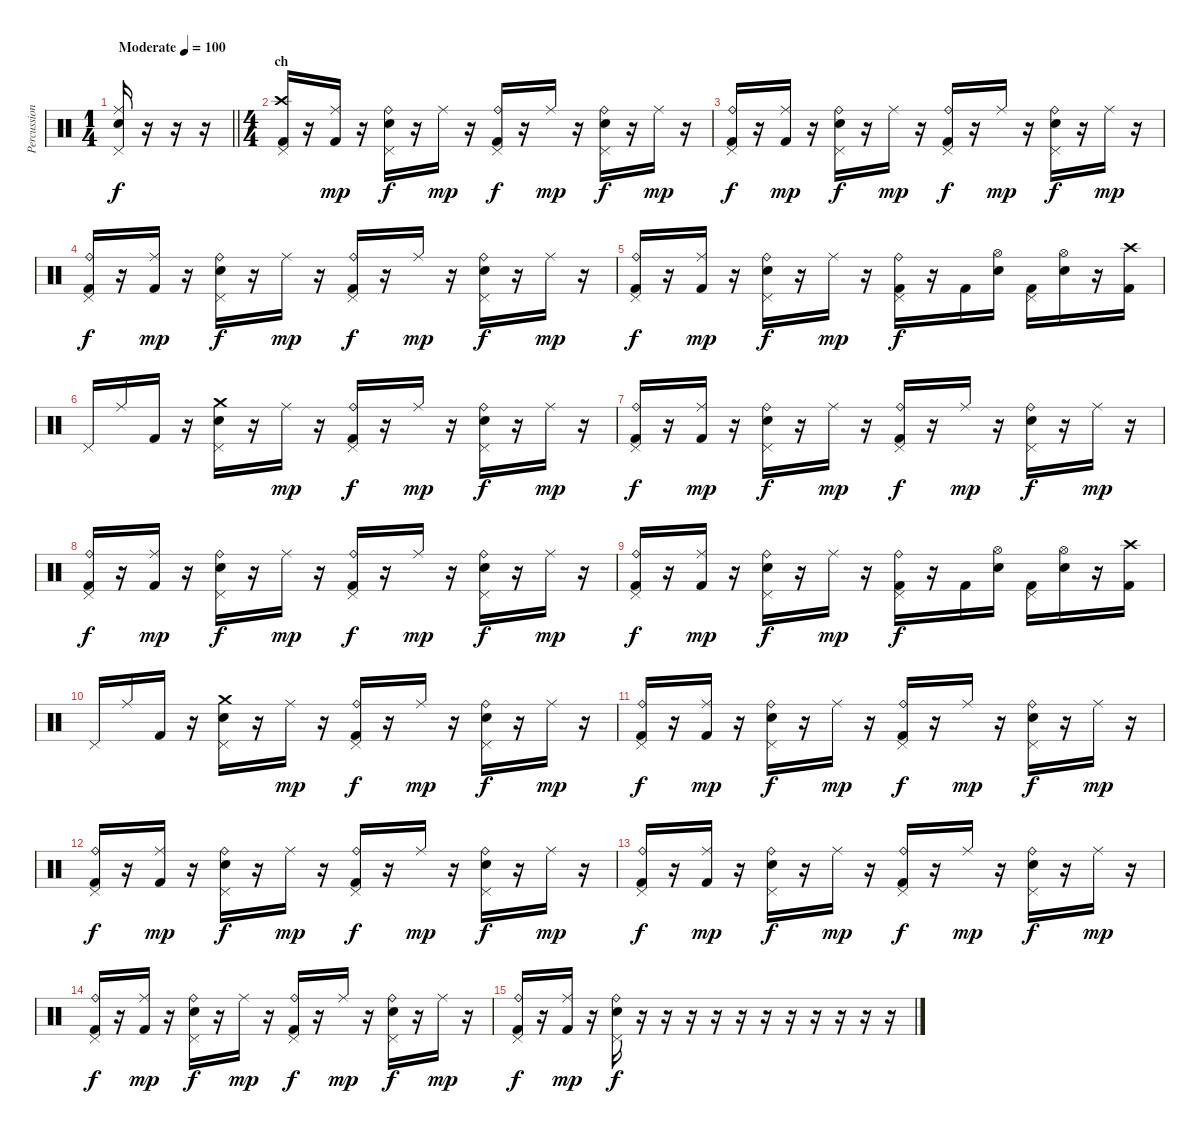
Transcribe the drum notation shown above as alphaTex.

\track ("Percussion" "Percussion") {instrument percussion}
\staff {score}
\articulation defaults
\ts (1 4)
\tempo (100 "Moderate")
\clef neutral
\barLineRight lightlight
\ks c
("Ride (middle)" "Electric Snare (hit)" "Pedal Hi-Hat (hit)").16{dy f} r.16 r.16 r.16 |
\ts (4 4)
\section ("" "ch")
("Crash high (hit)" "Pedal Hi-Hat (hit)" "Kick (hit) 2").16 r.16 ("Ride (middle)" "Kick (hit) 2").16{dy mp} r.16 ("Ride (bell)" "Electric Snare (hit)" "Pedal Hi-Hat (hit)").16{dy f} r.16 "Ride (middle)".16{dy mp} r.16 ("Ride (bell)" "Pedal Hi-Hat (hit)" "Kick (hit) 2").16{dy f} r.16 "Ride (middle)".16{dy mp} r.16 ("Ride (bell)" "Electric Snare (hit)" "Pedal Hi-Hat (hit)").16{dy f} r.16 "Ride (middle)".16{dy mp} r.16 |
("Ride (bell)" "Pedal Hi-Hat (hit)" "Kick (hit) 2").16{dy f} r.16 ("Ride (middle)" "Kick (hit) 2").16{dy mp} r.16 ("Ride (bell)" "Electric Snare (hit)" "Pedal Hi-Hat (hit)").16{dy f} r.16 "Ride (middle)".16{dy mp} r.16 ("Ride (bell)" "Pedal Hi-Hat (hit)" "Kick (hit) 2").16{dy f} r.16 "Ride (middle)".16{dy mp} r.16 ("Ride (bell)" "Electric Snare (hit)" "Pedal Hi-Hat (hit)").16{dy f} r.16 "Ride (middle)".16{dy mp} r.16 |
("Ride (bell)" "Pedal Hi-Hat (hit)" "Kick (hit) 2").16{dy f} r.16 ("Ride (middle)" "Kick (hit) 2").16{dy mp} r.16 ("Ride (bell)" "Electric Snare (hit)" "Pedal Hi-Hat (hit)").16{dy f} r.16 "Ride (middle)".16{dy mp} r.16 ("Ride (bell)" "Pedal Hi-Hat (hit)" "Kick (hit) 2").16{dy f} r.16 "Ride (middle)".16{dy mp} r.16 ("Ride (bell)" "Electric Snare (hit)" "Pedal Hi-Hat (hit)").16{dy f} r.16 "Ride (middle)".16{dy mp} r.16 |
("Ride (bell)" "Pedal Hi-Hat (hit)" "Kick (hit) 2").16{dy f} r.16 ("Ride (middle)" "Kick (hit) 2").16{dy mp} r.16 ("Ride (bell)" "Electric Snare (hit)" "Pedal Hi-Hat (hit)").16{dy f} r.16 "Ride (middle)".16{dy mp} r.16 ("Ride (bell)" "Pedal Hi-Hat (hit)" "Kick (hit) 2").16{dy f} r.16 "Kick (hit) 2".16 ("Hi-Hat (open)" "Electric Snare (hit)").16 ("Pedal Hi-Hat (hit)" "Kick (hit) 2").16 ("Hi-Hat (open)" "Electric Snare (hit)").16 r.16 ("Crash high (hit)" "Kick (hit) 2").16 |
"Pedal Hi-Hat (hit)".16 "Ride (middle)".16 "Kick (hit) 2".16 r.16 ("Crash medium (hit)" "Electric Snare (hit)" "Pedal Hi-Hat (hit)").16 r.16 "Ride (middle)".16{dy mp} r.16 ("Ride (bell)" "Pedal Hi-Hat (hit)" "Kick (hit) 2").16{dy f} r.16 "Ride (middle)".16{dy mp} r.16 ("Ride (bell)" "Electric Snare (hit)" "Pedal Hi-Hat (hit)").16{dy f} r.16 "Ride (middle)".16{dy mp} r.16 |
("Ride (bell)" "Pedal Hi-Hat (hit)" "Kick (hit) 2").16{dy f} r.16 ("Ride (middle)" "Kick (hit) 2").16{dy mp} r.16 ("Ride (bell)" "Electric Snare (hit)" "Pedal Hi-Hat (hit)").16{dy f} r.16 "Ride (middle)".16{dy mp} r.16 ("Ride (bell)" "Pedal Hi-Hat (hit)" "Kick (hit) 2").16{dy f} r.16 "Ride (middle)".16{dy mp} r.16 ("Ride (bell)" "Electric Snare (hit)" "Pedal Hi-Hat (hit)").16{dy f} r.16 "Ride (middle)".16{dy mp} r.16 |
("Ride (bell)" "Pedal Hi-Hat (hit)" "Kick (hit) 2").16{dy f} r.16 ("Ride (middle)" "Kick (hit) 2").16{dy mp} r.16 ("Ride (bell)" "Electric Snare (hit)" "Pedal Hi-Hat (hit)").16{dy f} r.16 "Ride (middle)".16{dy mp} r.16 ("Ride (bell)" "Pedal Hi-Hat (hit)" "Kick (hit) 2").16{dy f} r.16 "Ride (middle)".16{dy mp} r.16 ("Ride (bell)" "Electric Snare (hit)" "Pedal Hi-Hat (hit)").16{dy f} r.16 "Ride (middle)".16{dy mp} r.16 |
("Ride (bell)" "Pedal Hi-Hat (hit)" "Kick (hit) 2").16{dy f} r.16 ("Ride (middle)" "Kick (hit) 2").16{dy mp} r.16 ("Ride (bell)" "Electric Snare (hit)" "Pedal Hi-Hat (hit)").16{dy f} r.16 "Ride (middle)".16{dy mp} r.16 ("Ride (bell)" "Pedal Hi-Hat (hit)" "Kick (hit) 2").16{dy f} r.16 "Kick (hit) 2".16 ("Hi-Hat (open)" "Electric Snare (hit)").16 ("Pedal Hi-Hat (hit)" "Kick (hit) 2").16 ("Hi-Hat (open)" "Electric Snare (hit)").16 r.16 ("Crash high (hit)" "Kick (hit) 2").16 |
"Pedal Hi-Hat (hit)".16 "Ride (middle)".16 "Kick (hit) 2".16 r.16 ("Crash medium (hit)" "Electric Snare (hit)" "Pedal Hi-Hat (hit)").16 r.16 "Ride (middle)".16{dy mp} r.16 ("Ride (bell)" "Pedal Hi-Hat (hit)" "Kick (hit) 2").16{dy f} r.16 "Ride (middle)".16{dy mp} r.16 ("Ride (bell)" "Electric Snare (hit)" "Pedal Hi-Hat (hit)").16{dy f} r.16 "Ride (middle)".16{dy mp} r.16 |
("Ride (bell)" "Pedal Hi-Hat (hit)" "Kick (hit) 2").16{dy f} r.16 ("Ride (middle)" "Kick (hit) 2").16{dy mp} r.16 ("Ride (bell)" "Electric Snare (hit)" "Pedal Hi-Hat (hit)").16{dy f} r.16 "Ride (middle)".16{dy mp} r.16 ("Ride (bell)" "Pedal Hi-Hat (hit)" "Kick (hit) 2").16{dy f} r.16 "Ride (middle)".16{dy mp} r.16 ("Ride (bell)" "Electric Snare (hit)" "Pedal Hi-Hat (hit)").16{dy f} r.16 "Ride (middle)".16{dy mp} r.16 |
("Ride (bell)" "Pedal Hi-Hat (hit)" "Kick (hit) 2").16{dy f} r.16 ("Ride (middle)" "Kick (hit) 2").16{dy mp} r.16 ("Ride (bell)" "Electric Snare (hit)" "Pedal Hi-Hat (hit)").16{dy f} r.16 "Ride (middle)".16{dy mp} r.16 ("Ride (bell)" "Pedal Hi-Hat (hit)" "Kick (hit) 2").16{dy f} r.16 "Ride (middle)".16{dy mp} r.16 ("Ride (bell)" "Electric Snare (hit)" "Pedal Hi-Hat (hit)").16{dy f} r.16 "Ride (middle)".16{dy mp} r.16 |
("Ride (bell)" "Pedal Hi-Hat (hit)" "Kick (hit) 2").16{dy f} r.16 ("Ride (middle)" "Kick (hit) 2").16{dy mp} r.16 ("Ride (bell)" "Electric Snare (hit)" "Pedal Hi-Hat (hit)").16{dy f} r.16 "Ride (middle)".16{dy mp} r.16 ("Ride (bell)" "Pedal Hi-Hat (hit)" "Kick (hit) 2").16{dy f} r.16 "Ride (middle)".16{dy mp} r.16 ("Ride (bell)" "Electric Snare (hit)" "Pedal Hi-Hat (hit)").16{dy f} r.16 "Ride (middle)".16{dy mp} r.16 |
("Ride (bell)" "Pedal Hi-Hat (hit)" "Kick (hit) 2").16{dy f} r.16 ("Ride (middle)" "Kick (hit) 2").16{dy mp} r.16 ("Ride (bell)" "Electric Snare (hit)" "Pedal Hi-Hat (hit)").16{dy f} r.16 "Ride (middle)".16{dy mp} r.16 ("Ride (bell)" "Pedal Hi-Hat (hit)" "Kick (hit) 2").16{dy f} r.16 "Ride (middle)".16{dy mp} r.16 ("Ride (bell)" "Electric Snare (hit)" "Pedal Hi-Hat (hit)").16{dy f} r.16 "Ride (middle)".16{dy mp} r.16 |
("Ride (bell)" "Pedal Hi-Hat (hit)" "Kick (hit) 2").16{dy f} r.16 ("Ride (middle)" "Kick (hit) 2").16{dy mp} r.16 ("Ride (bell)" "Electric Snare (hit)" "Pedal Hi-Hat (hit)").16{dy f} r.16 r.16 r.16 r.16 r.16 r.16 r.16 r.16 r.16 r.16 r.16
